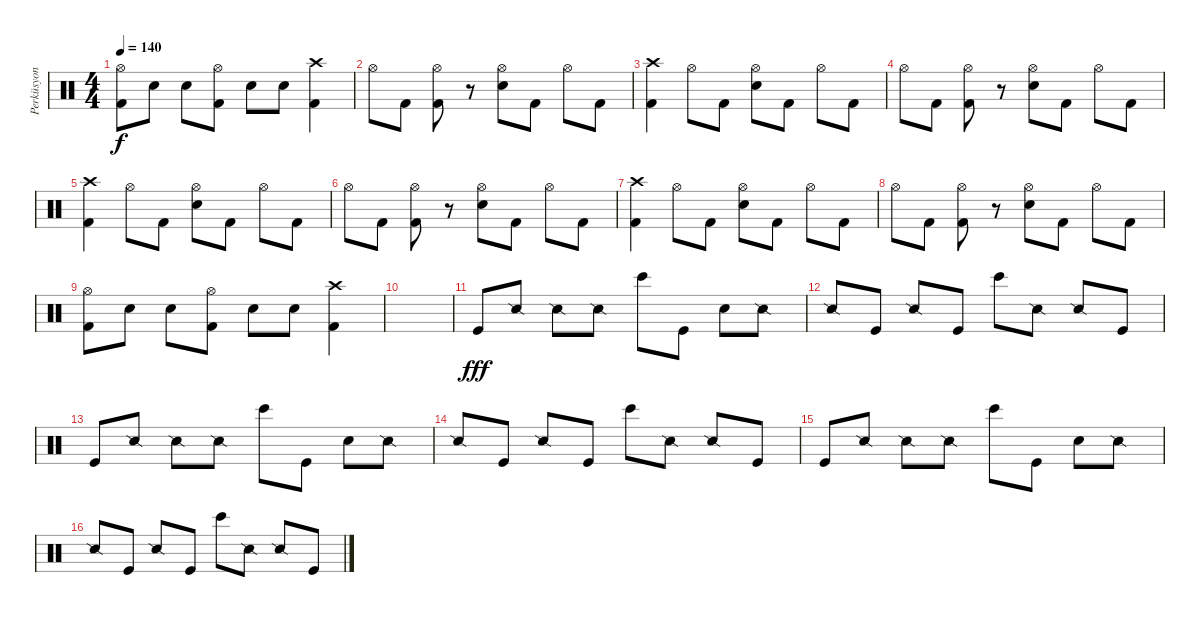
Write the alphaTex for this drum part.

\track ("Perküsyon" "Perküsyon") {instrument percussion}
\staff {score}
\articulation defaults
\ts (4 4)
\tempo 140
\clef neutral
\ks c
("Hi-Hat (open)" "Kick (hit) 2").8{dy f} "Electric Snare (hit)".8 "Electric Snare (hit)".8 ("Hi-Hat (open)" "Kick (hit) 2").8 "Electric Snare (hit)".8 "Electric Snare (hit)".8 ("Crash high (hit)" "Kick (hit) 2").4 |
"Hi-Hat (open)".8 "Kick (hit) 2".8 ("Hi-Hat (open)" "Kick (hit) 2").8 r.8 ("Hi-Hat (open)" "Electric Snare (hit)").8 "Kick (hit) 2".8 "Hi-Hat (open)".8 "Kick (hit) 2".8 |
("Crash high (hit)" "Kick (hit) 2").4 "Hi-Hat (open)".8 "Kick (hit) 2".8 ("Hi-Hat (open)" "Electric Snare (hit)").8 "Kick (hit) 2".8 "Hi-Hat (open)".8 "Kick (hit) 2".8 |
"Hi-Hat (open)".8 "Kick (hit) 2".8 ("Hi-Hat (open)" "Kick (hit) 2").8 r.8 ("Hi-Hat (open)" "Electric Snare (hit)").8 "Kick (hit) 2".8 "Hi-Hat (open)".8 "Kick (hit) 2".8 |
("Crash high (hit)" "Kick (hit) 2").4 "Hi-Hat (open)".8 "Kick (hit) 2".8 ("Hi-Hat (open)" "Electric Snare (hit)").8 "Kick (hit) 2".8 "Hi-Hat (open)".8 "Kick (hit) 2".8 |
"Hi-Hat (open)".8 "Kick (hit) 2".8 ("Hi-Hat (open)" "Kick (hit) 2").8 r.8 ("Hi-Hat (open)" "Electric Snare (hit)").8 "Kick (hit) 2".8 "Hi-Hat (open)".8 "Kick (hit) 2".8 |
("Crash high (hit)" "Kick (hit) 2").4 "Hi-Hat (open)".8 "Kick (hit) 2".8 ("Hi-Hat (open)" "Electric Snare (hit)").8 "Kick (hit) 2".8 "Hi-Hat (open)".8 "Kick (hit) 2".8 |
"Hi-Hat (open)".8 "Kick (hit) 2".8 ("Hi-Hat (open)" "Kick (hit) 2").8 r.8 ("Hi-Hat (open)" "Electric Snare (hit)").8 "Kick (hit) 2".8 "Hi-Hat (open)".8 "Kick (hit) 2".8 |
("Hi-Hat (open)" "Kick (hit) 2").8 "Electric Snare (hit)".8 "Electric Snare (hit)".8 ("Hi-Hat (open)" "Kick (hit) 2").8 "Electric Snare (hit)".8 "Electric Snare (hit)".8 ("Crash high (hit)" "Kick (hit) 2").4 |
|
"Kick (hit)".8{dy fff} "Snare (side stick) 2".8 "Snare (side stick) 2".8 "Snare (side stick) 2".8 "Bongo High (hit)".8 "Kick (hit)".8 "Metronome (bell)".8 "Snare (side stick) 2".8 |
"Snare (side stick) 2".8 "Kick (hit)".8 "Snare (side stick) 2".8 "Kick (hit)".8 "Bongo High (hit)".8 "Snare (side stick) 2".8 "Snare (side stick) 2".8 "Kick (hit)".8 |
"Kick (hit)".8 "Snare (side stick) 2".8 "Snare (side stick) 2".8 "Snare (side stick) 2".8 "Bongo High (hit)".8 "Kick (hit)".8 "Metronome (bell)".8 "Snare (side stick) 2".8 |
"Snare (side stick) 2".8 "Kick (hit)".8 "Snare (side stick) 2".8 "Kick (hit)".8 "Bongo High (hit)".8 "Snare (side stick) 2".8 "Snare (side stick) 2".8 "Kick (hit)".8 |
"Kick (hit)".8 "Snare (side stick) 2".8 "Snare (side stick) 2".8 "Snare (side stick) 2".8 "Bongo High (hit)".8 "Kick (hit)".8 "Metronome (bell)".8 "Snare (side stick) 2".8 |
"Snare (side stick) 2".8 "Kick (hit)".8 "Snare (side stick) 2".8 "Kick (hit)".8 "Bongo High (hit)".8 "Snare (side stick) 2".8 "Snare (side stick) 2".8 "Kick (hit)".8
